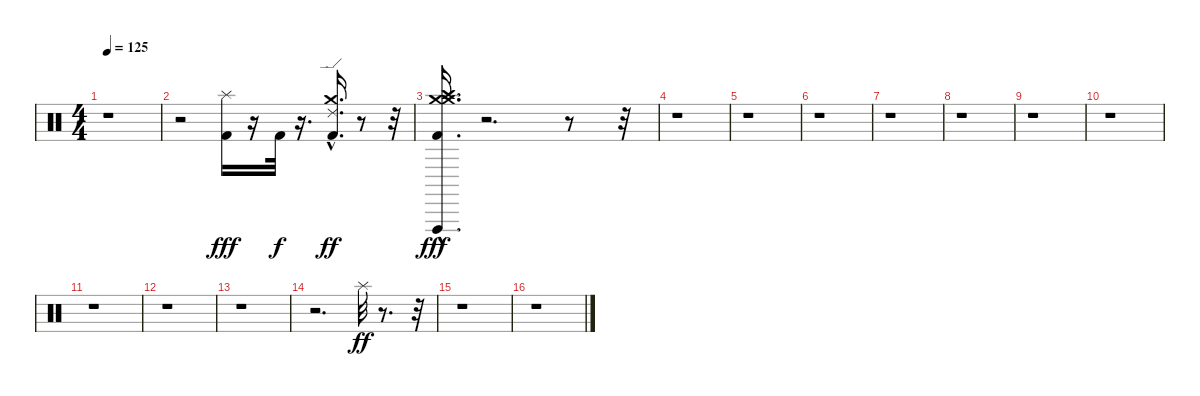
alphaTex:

\track "" {instrument percussion}
\staff {score}
\articulation defaults
\ts (4 4)
\tempo 125
\clef neutral
\ks c
r.1{dy fff} |
r.2 ("Splash (hit)" "Kick (hit) 2").16 r.16 "Kick (hit) 2".32{dy f} r.16{d} ("Crash medium (hit)" "Ride (edge) 2" "Kick (hit) 2"{hac}).16{d dy ff} r.8 r.32 |
("Crash medium (hit)" "Crash medium (hit)" "Crash high (hit)"{hac} "Vibraslap (hit)" "Kick (hit) 2"{hac}).16{d dy fff} r.2{d} r.8 r.32 |
r.1 |
r.1 |
r.1 |
r.1 |
r.1 |
r.1 |
r.1 |
r.1 |
r.1 |
r.1 |
r.2{d} "Splash (hit)".32{dy ff} r.8{d} r.32 |
r.1 |
r.1
